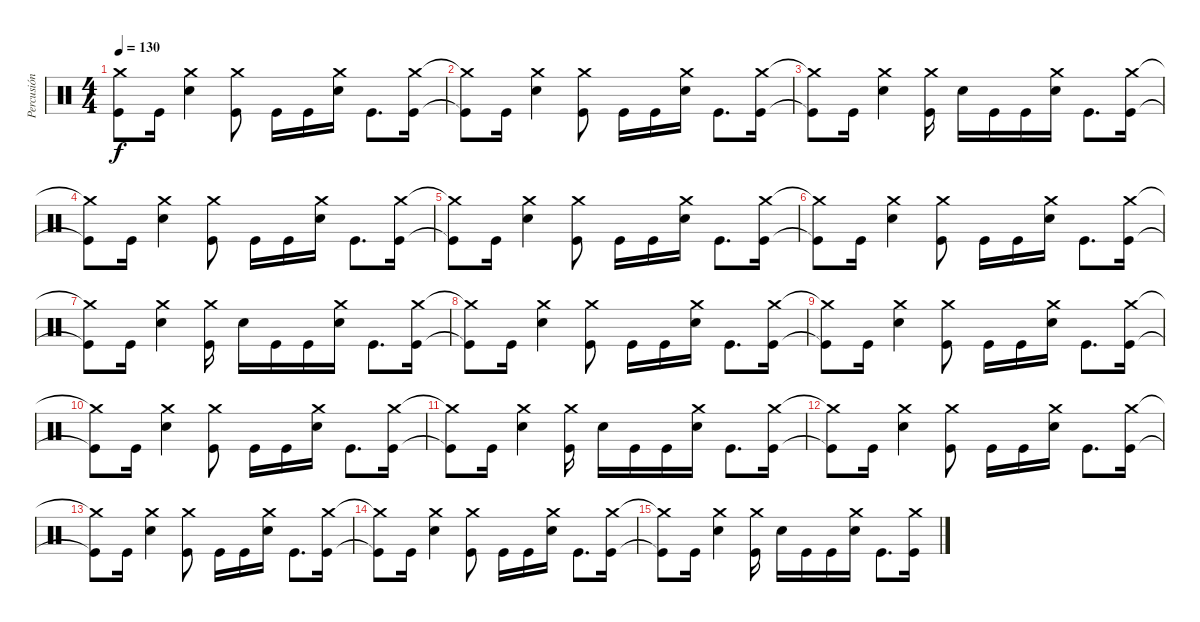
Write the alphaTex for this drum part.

\track ("Percusión" "Percusión") {instrument percussion}
\staff {score}
\articulation defaults
\ts (4 4)
\tempo 130
\clef neutral
\ks c
("Crash medium (hit)"{t} "Kick (hit)"{t}).8{dy f} "Kick (hit)".16 ("Crash medium (hit)" "Electric Snare (hit)").4 ("Crash medium (hit)" "Kick (hit)").8 "Kick (hit)".16 "Kick (hit)".16 ("Crash medium (hit)" "Electric Snare (hit)").16 "Kick (hit)".8{d} ("Crash medium (hit)" "Kick (hit)").16 |
("Crash medium (hit)"{t} "Kick (hit)"{t}).8 "Kick (hit)".16 ("Crash medium (hit)" "Electric Snare (hit)").4 ("Crash medium (hit)" "Kick (hit)").8 "Kick (hit)".16 "Kick (hit)".16 ("Crash medium (hit)" "Electric Snare (hit)").16 "Kick (hit)".8{d} ("Crash medium (hit)" "Kick (hit)").16 |
("Crash medium (hit)"{t} "Kick (hit)"{t}).8 "Kick (hit)".16 ("Crash medium (hit)" "Electric Snare (hit)").4 ("Crash medium (hit)" "Kick (hit)").16 "Electric Snare (hit)".16 "Kick (hit)".16 "Kick (hit)".16 ("Crash medium (hit)" "Electric Snare (hit)").16 "Kick (hit)".8{d} ("Crash medium (hit)" "Kick (hit)").16 |
("Crash medium (hit)"{t} "Kick (hit)"{t}).8 "Kick (hit)".16 ("Crash medium (hit)" "Electric Snare (hit)").4 ("Crash medium (hit)" "Kick (hit)").8 "Kick (hit)".16 "Kick (hit)".16 ("Crash medium (hit)" "Electric Snare (hit)").16 "Kick (hit)".8{d} ("Crash medium (hit)" "Kick (hit)").16 |
("Crash medium (hit)"{t} "Kick (hit)"{t}).8 "Kick (hit)".16 ("Crash medium (hit)" "Electric Snare (hit)").4 ("Crash medium (hit)" "Kick (hit)").8 "Kick (hit)".16 "Kick (hit)".16 ("Crash medium (hit)" "Electric Snare (hit)").16 "Kick (hit)".8{d} ("Crash medium (hit)" "Kick (hit)").16 |
("Crash medium (hit)"{t} "Kick (hit)"{t}).8 "Kick (hit)".16 ("Crash medium (hit)" "Electric Snare (hit)").4 ("Crash medium (hit)" "Kick (hit)").8 "Kick (hit)".16 "Kick (hit)".16 ("Crash medium (hit)" "Electric Snare (hit)").16 "Kick (hit)".8{d} ("Crash medium (hit)" "Kick (hit)").16 |
("Crash medium (hit)"{t} "Kick (hit)"{t}).8 "Kick (hit)".16 ("Crash medium (hit)" "Electric Snare (hit)").4 ("Crash medium (hit)" "Kick (hit)").16 "Electric Snare (hit)".16 "Kick (hit)".16 "Kick (hit)".16 ("Crash medium (hit)" "Electric Snare (hit)").16 "Kick (hit)".8{d} ("Crash medium (hit)" "Kick (hit)").16 |
("Crash medium (hit)"{t} "Kick (hit)"{t}).8 "Kick (hit)".16 ("Crash medium (hit)" "Electric Snare (hit)").4 ("Crash medium (hit)" "Kick (hit)").8 "Kick (hit)".16 "Kick (hit)".16 ("Crash medium (hit)" "Electric Snare (hit)").16 "Kick (hit)".8{d} ("Crash medium (hit)" "Kick (hit)").16 |
("Crash medium (hit)"{t} "Kick (hit)"{t}).8 "Kick (hit)".16 ("Crash medium (hit)" "Electric Snare (hit)").4 ("Crash medium (hit)" "Kick (hit)").8 "Kick (hit)".16 "Kick (hit)".16 ("Crash medium (hit)" "Electric Snare (hit)").16 "Kick (hit)".8{d} ("Crash medium (hit)" "Kick (hit)").16 |
("Crash medium (hit)"{t} "Kick (hit)"{t}).8 "Kick (hit)".16 ("Crash medium (hit)" "Electric Snare (hit)").4 ("Crash medium (hit)" "Kick (hit)").8 "Kick (hit)".16 "Kick (hit)".16 ("Crash medium (hit)" "Electric Snare (hit)").16 "Kick (hit)".8{d} ("Crash medium (hit)" "Kick (hit)").16 |
("Crash medium (hit)"{t} "Kick (hit)"{t}).8 "Kick (hit)".16 ("Crash medium (hit)" "Electric Snare (hit)").4 ("Crash medium (hit)" "Kick (hit)").16 "Electric Snare (hit)".16 "Kick (hit)".16 "Kick (hit)".16 ("Crash medium (hit)" "Electric Snare (hit)").16 "Kick (hit)".8{d} ("Crash medium (hit)" "Kick (hit)").16 |
("Crash medium (hit)"{t} "Kick (hit)"{t}).8 "Kick (hit)".16 ("Crash medium (hit)" "Electric Snare (hit)").4 ("Crash medium (hit)" "Kick (hit)").8 "Kick (hit)".16 "Kick (hit)".16 ("Crash medium (hit)" "Electric Snare (hit)").16 "Kick (hit)".8{d} ("Crash medium (hit)" "Kick (hit)").16 |
("Crash medium (hit)"{t} "Kick (hit)"{t}).8{volume 12} "Kick (hit)".16 ("Crash medium (hit)" "Electric Snare (hit)").4 ("Crash medium (hit)" "Kick (hit)").8 "Kick (hit)".16 "Kick (hit)".16 ("Crash medium (hit)" "Electric Snare (hit)").16 "Kick (hit)".8{d} ("Crash medium (hit)" "Kick (hit)").16 |
("Crash medium (hit)"{t} "Kick (hit)"{t}).8 "Kick (hit)".16 ("Crash medium (hit)" "Electric Snare (hit)").4 ("Crash medium (hit)" "Kick (hit)").8 "Kick (hit)".16 "Kick (hit)".16 ("Crash medium (hit)" "Electric Snare (hit)").16 "Kick (hit)".8{d} ("Crash medium (hit)" "Kick (hit)").16 |
("Crash medium (hit)"{t} "Kick (hit)"{t}).8 "Kick (hit)".16 ("Crash medium (hit)" "Electric Snare (hit)").4 ("Crash medium (hit)" "Kick (hit)").16 "Electric Snare (hit)".16 "Kick (hit)".16 "Kick (hit)".16 ("Crash medium (hit)" "Electric Snare (hit)").16 "Kick (hit)".8{d} ("Crash medium (hit)" "Kick (hit)").16
